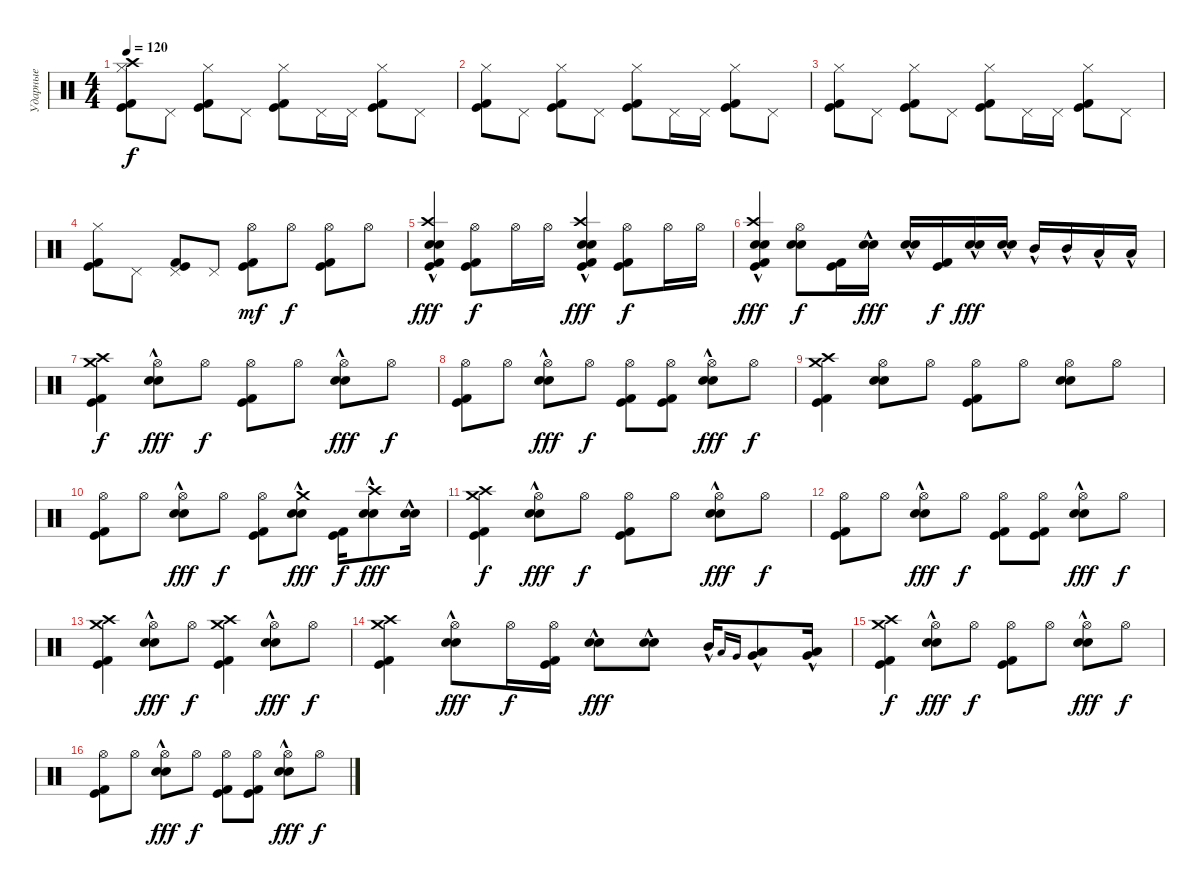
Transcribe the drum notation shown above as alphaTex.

\track ("Ударные" "Ударные") {instrument percussion}
\staff {score}
\articulation defaults
\ts (4 4)
\tempo 120
\clef neutral
\ks c
("Hi-Hat (closed)" "Kick (hit)" "Kick (hit) 2" "Crash high (hit)").8{dy f} "Pedal Hi-Hat (hit)".8 ("Hi-Hat (closed)" "Kick (hit)" "Kick (hit) 2").8 "Pedal Hi-Hat (hit)".8 ("Hi-Hat (closed)" "Kick (hit)" "Kick (hit) 2").8 "Pedal Hi-Hat (hit)".16 "Pedal Hi-Hat (hit)".16 ("Hi-Hat (closed)" "Kick (hit)" "Kick (hit) 2").8 "Pedal Hi-Hat (hit)".8 |
("Hi-Hat (closed)" "Kick (hit)" "Kick (hit) 2").8 "Pedal Hi-Hat (hit)".8 ("Hi-Hat (closed)" "Kick (hit)" "Kick (hit) 2").8 "Pedal Hi-Hat (hit)".8 ("Hi-Hat (closed)" "Kick (hit)" "Kick (hit) 2").8 "Pedal Hi-Hat (hit)".16 "Pedal Hi-Hat (hit)".16 ("Hi-Hat (closed)" "Kick (hit)" "Kick (hit) 2").8 "Pedal Hi-Hat (hit)".8 |
("Hi-Hat (closed)" "Kick (hit)" "Kick (hit) 2").8 "Pedal Hi-Hat (hit)".8 ("Hi-Hat (closed)" "Kick (hit)" "Kick (hit) 2").8 "Pedal Hi-Hat (hit)".8 ("Hi-Hat (closed)" "Kick (hit)" "Kick (hit) 2").8 "Pedal Hi-Hat (hit)".16 "Pedal Hi-Hat (hit)".16 ("Hi-Hat (closed)" "Kick (hit)" "Kick (hit) 2").8 "Pedal Hi-Hat (hit)".8 |
("Hi-Hat (closed)" "Kick (hit)" "Kick (hit) 2").8 "Pedal Hi-Hat (hit)".8 ("Pedal Hi-Hat (hit)" "Kick (hit)" "Kick (hit) 2").8 "Pedal Hi-Hat (hit)".8 ("Hi-Hat (open)" "Kick (hit)" "Kick (hit) 2").8{dy mf} "Hi-Hat (open)".8{dy f} ("Hi-Hat (open)" "Kick (hit)" "Kick (hit) 2").8 "Hi-Hat (open)".8 |
("Crash high (hit)" "Kick (hit)" "Kick (hit) 2" "Snare (hit) 2"{hac} "Electric Snare (hit)"{hac}).4{dy fff} ("Hi-Hat (open)" "Kick (hit)" "Kick (hit) 2").8{dy f} "Hi-Hat (open)".16 "Hi-Hat (open)".16 ("Crash high (hit)" "Kick (hit)" "Kick (hit) 2" "Snare (hit) 2"{hac} "Electric Snare (hit)"{hac}).4{dy fff} ("Hi-Hat (open)" "Kick (hit)" "Kick (hit) 2").8{dy f} "Hi-Hat (open)".16 "Hi-Hat (open)".16 |
("Crash high (hit)" "Kick (hit)" "Kick (hit) 2" "Snare (hit) 2"{hac} "Electric Snare (hit)"{hac}).4{dy fff} ("Hi-Hat (open)" "Snare (hit) 2" "Electric Snare (hit)").8{dy f} ("Kick (hit)" "Kick (hit) 2").16 ("Snare (hit) 2"{hac} "Electric Snare (hit)"{hac}).16{dy fff} ("Snare (hit) 2"{hac} "Electric Snare (hit)"{hac}).16 ("Kick (hit)" "Kick (hit) 2").16{dy f} ("Snare (hit) 2"{hac} "Electric Snare (hit)"{hac}).16{dy fff} ("Snare (hit) 2"{hac} "Electric Snare (hit)"{hac}).16 "Mid Tom (hit)"{hac}.16 "Mid Tom (hit)"{hac}.16 "Low Tom (hit)"{hac}.16 "Low Tom (hit)"{hac}.16 |
("Crash high (hit)" "Kick (hit)" "Kick (hit) 2" "Crash medium (hit)").4{dy f} ("Hi-Hat (open)" "Snare (hit) 2"{hac} "Electric Snare (hit)"{hac}).8{dy fff} "Hi-Hat (open)".8{dy f} ("Hi-Hat (open)" "Kick (hit)" "Kick (hit) 2").8 "Hi-Hat (open)".8 ("Hi-Hat (open)" "Snare (hit) 2"{hac} "Electric Snare (hit)"{hac}).8{dy fff} "Hi-Hat (open)".8{dy f} |
("Hi-Hat (open)" "Kick (hit)" "Kick (hit) 2").8 "Hi-Hat (open)".8 ("Hi-Hat (open)" "Snare (hit) 2"{hac} "Electric Snare (hit)"{hac}).8{dy fff} "Hi-Hat (open)".8{dy f} ("Hi-Hat (open)" "Kick (hit)" "Kick (hit) 2").8 ("Hi-Hat (open)" "Kick (hit)" "Kick (hit) 2").8 ("Hi-Hat (open)" "Snare (hit) 2"{hac} "Electric Snare (hit)"{hac}).8{dy fff} "Hi-Hat (open)".8{dy f} |
("Crash high (hit)" "Kick (hit)" "Kick (hit) 2" "Crash medium (hit)").4 ("Hi-Hat (open)" "Snare (hit) 2" "Electric Snare (hit)").8 "Hi-Hat (open)".8 ("Hi-Hat (open)" "Kick (hit)" "Kick (hit) 2").8 "Hi-Hat (open)".8 ("Hi-Hat (open)" "Snare (hit) 2" "Electric Snare (hit)").8 "Hi-Hat (open)".8 |
("Hi-Hat (open)" "Kick (hit)" "Kick (hit) 2").8 "Hi-Hat (open)".8 ("Hi-Hat (open)" "Snare (hit) 2"{hac} "Electric Snare (hit)"{hac}).8{dy fff} "Hi-Hat (open)".8{dy f} ("Hi-Hat (open)" "Kick (hit)" "Kick (hit) 2").8 ("Crash medium (hit)" "Snare (hit) 2"{hac} "Electric Snare (hit)"{hac}).8{dy fff} ("Kick (hit)" "Kick (hit) 2").16{dy f} ("Crash high (hit)" "Snare (hit) 2"{hac} "Electric Snare (hit)"{hac}).8{dy fff} ("Snare (hit) 2"{hac} "Electric Snare (hit)"{hac}).16 |
("Crash high (hit)" "Kick (hit)" "Kick (hit) 2" "Crash medium (hit)").4{dy f} ("Hi-Hat (open)" "Snare (hit) 2"{hac} "Electric Snare (hit)"{hac}).8{dy fff} "Hi-Hat (open)".8{dy f} ("Hi-Hat (open)" "Kick (hit)" "Kick (hit) 2").8 "Hi-Hat (open)".8 ("Hi-Hat (open)" "Snare (hit) 2"{hac} "Electric Snare (hit)"{hac}).8{dy fff} "Hi-Hat (open)".8{dy f} |
("Hi-Hat (open)" "Kick (hit)" "Kick (hit) 2").8 "Hi-Hat (open)".8 ("Hi-Hat (open)" "Snare (hit) 2"{hac} "Electric Snare (hit)"{hac}).8{dy fff} "Hi-Hat (open)".8{dy f} ("Hi-Hat (open)" "Kick (hit)" "Kick (hit) 2").8 ("Hi-Hat (open)" "Kick (hit)" "Kick (hit) 2").8 ("Hi-Hat (open)" "Snare (hit) 2"{hac} "Electric Snare (hit)"{hac}).8{dy fff} "Hi-Hat (open)".8{dy f} |
("Crash high (hit)" "Kick (hit)" "Kick (hit) 2" "Crash medium (hit)").4 ("Hi-Hat (open)" "Snare (hit) 2"{hac} "Electric Snare (hit)"{hac}).8{dy fff} "Hi-Hat (open)".8{dy f} ("Crash high (hit)" "Kick (hit)" "Kick (hit) 2" "Crash medium (hit)").4 ("Hi-Hat (open)" "Snare (hit) 2"{hac} "Electric Snare (hit)"{hac}).8{dy fff} "Hi-Hat (open)".8{dy f} |
("Crash high (hit)" "Kick (hit)" "Kick (hit) 2" "Crash medium (hit)").4 ("Hi-Hat (open)" "Snare (hit) 2"{hac} "Electric Snare (hit)"{hac}).8{dy fff} "Hi-Hat (open)".16{dy f} ("Hi-Hat (open)" "Kick (hit)" "Kick (hit) 2").16 ("Snare (hit) 2"{hac} "Electric Snare (hit)"{hac}).8{dy fff} ("Snare (hit) 2"{hac} "Electric Snare (hit)"{hac}).8 "Mid Tom (hit)"{hac}.16 "Low Tom (hit)".16{gr onbeat} "Very Low Tom (hit)".16{gr onbeat} ("Low Tom (hit)"{hac} "Very Low Tom (hit)"{hac}).8 ("Low Floor Tom (hit)"{hac} "Very Low Tom (hit)"{hac}).16 |
("Crash high (hit)" "Kick (hit)" "Kick (hit) 2" "Crash medium (hit)").4{dy f} ("Hi-Hat (open)" "Snare (hit) 2"{hac} "Electric Snare (hit)"{hac}).8{dy fff} "Hi-Hat (open)".8{dy f} ("Hi-Hat (open)" "Kick (hit)" "Kick (hit) 2").8 "Hi-Hat (open)".8 ("Hi-Hat (open)" "Snare (hit) 2"{hac} "Electric Snare (hit)"{hac}).8{dy fff} "Hi-Hat (open)".8{dy f} |
("Hi-Hat (open)" "Kick (hit)" "Kick (hit) 2").8 "Hi-Hat (open)".8 ("Hi-Hat (open)" "Snare (hit) 2"{hac} "Electric Snare (hit)"{hac}).8{dy fff beam Down} "Hi-Hat (open)".8{dy f beam Down} ("Hi-Hat (open)" "Kick (hit)" "Kick (hit) 2").8 ("Hi-Hat (open)" "Kick (hit)" "Kick (hit) 2").8 ("Hi-Hat (open)" "Snare (hit) 2"{hac} "Electric Snare (hit)"{hac}).8{dy fff} "Hi-Hat (open)".8{dy f}
